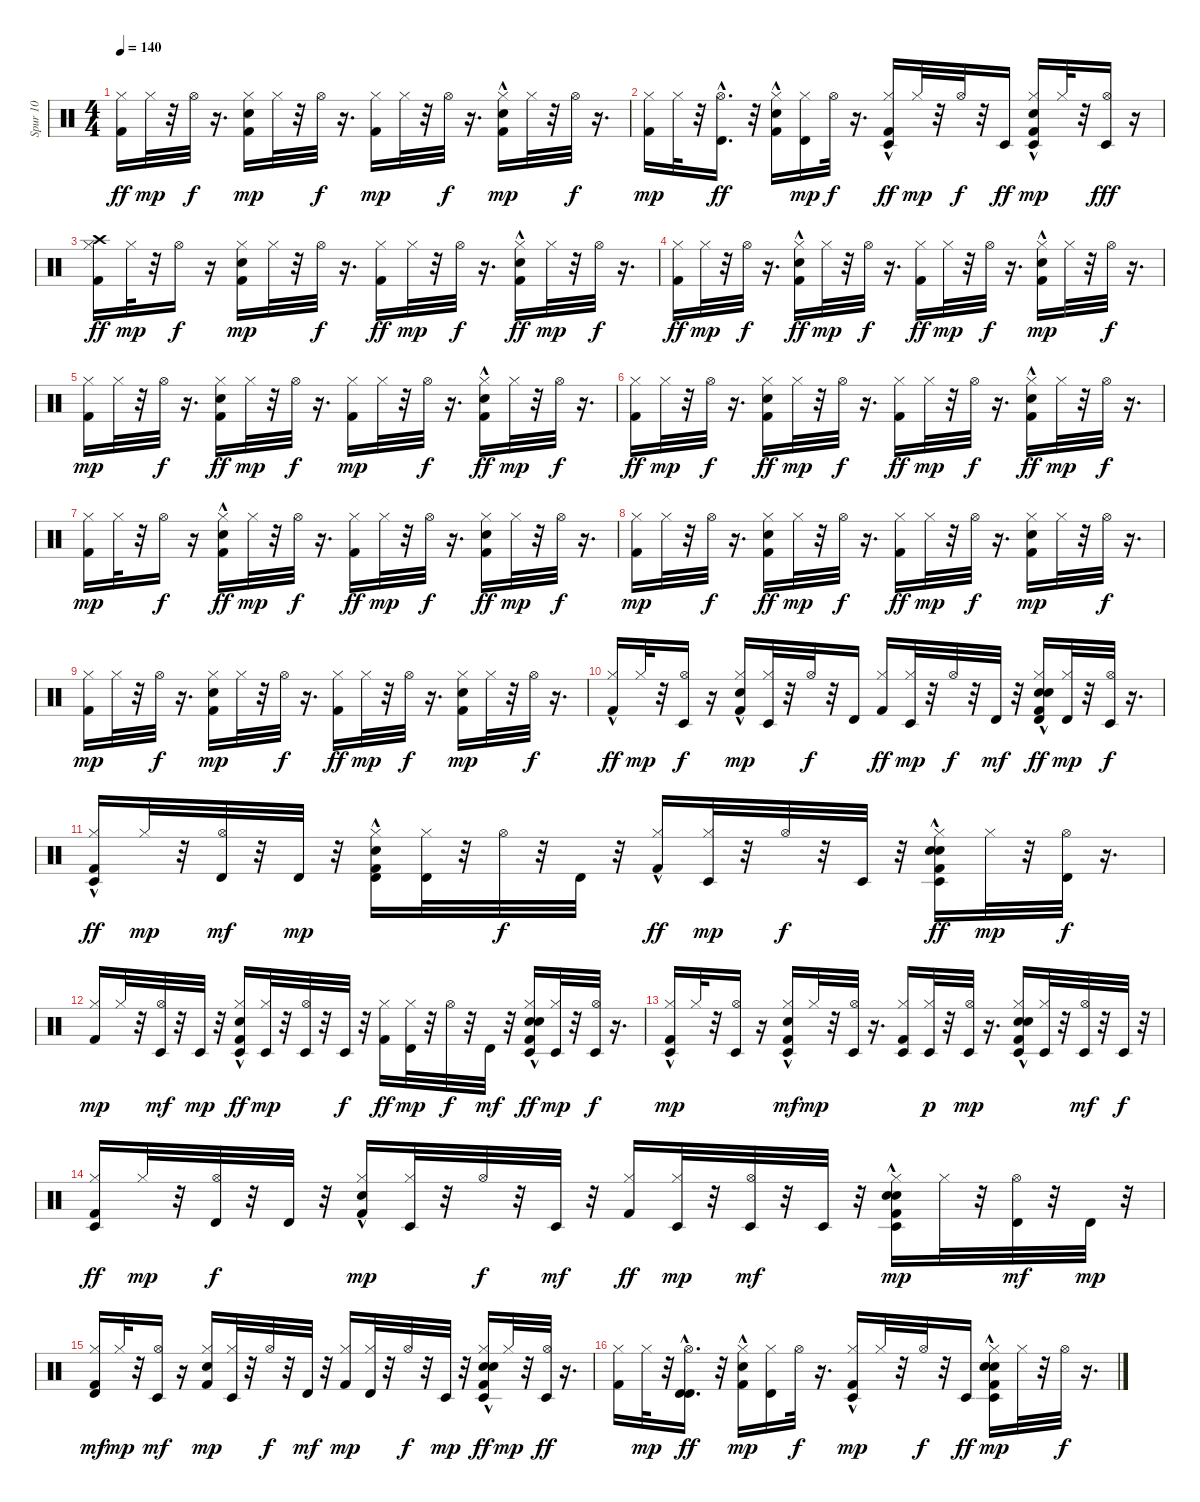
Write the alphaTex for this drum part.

\track ("Spur 10" "Spur 10") {instrument percussion}
\staff {score}
\articulation defaults
\ts (4 4)
\tempo 140
\clef neutral
\ks c
("Hi-Hat (closed)" "Kick (hit) 2").16{dy ff} "Hi-Hat (closed)".32{dy mp} r.32 "Hi-Hat (open)".32{dy f} r.16{d} ("Kick (hit) 2" "Electric Snare (hit)" "Hi-Hat (closed)").16{dy mp} "Hi-Hat (closed)".32 r.32 "Hi-Hat (open)".32{dy f} r.16{d} ("Kick (hit) 2" "Hi-Hat (closed)").16{dy mp} "Hi-Hat (closed)".32 r.32 "Hi-Hat (open)".32{dy f} r.16{d} ("Electric Snare (hit)"{hac} "Kick (hit) 2" "Hi-Hat (closed)").16{dy mp} "Hi-Hat (closed)".32 r.32 "Hi-Hat (open)".32{dy f} r.16{d} |
("Kick (hit) 2" "Hi-Hat (closed)").16{dy mp} "Hi-Hat (closed)".32 r.32 ("Timbale high (hit)"{hac} "Hi-Hat (open)").16{d dy ff} r.32 ("Hi-Hat (closed)" "Kick (hit) 2" "Electric Snare (hit)"{hac}).16 ("Hi-Hat (closed)" "Timbale high (hit)").16{dy mp} "Hi-Hat (open)".32{dy f} r.16{d} ("Timbale low (hit)"{hac} "Hi-Hat (closed)" "Kick (hit) 2").16{dy ff} "Hi-Hat (closed)".32{dy mp} r.32 "Hi-Hat (open)".32{dy f} r.32 "Timbale low (hit)".16{dy ff} ("Kick (hit) 2" "Electric Snare (hit)"{hac} "Timbale low (hit)" "Hi-Hat (closed)").16{dy mp} "Hi-Hat (closed)".32 r.32 ("Hi-Hat (open)" "Timbale low (hit)").16{dy fff} r.16 |
("Hi-Hat (closed)" "Crash high (hit)" "Kick (hit) 2").16{dy ff} "Hi-Hat (closed)".32{dy mp} r.32 "Hi-Hat (open)".16{dy f} r.16 ("Kick (hit) 2" "Electric Snare (hit)" "Hi-Hat (closed)").16{dy mp} "Hi-Hat (closed)".32 r.32 "Hi-Hat (open)".32{dy f} r.16{d} ("Hi-Hat (closed)" "Kick (hit) 2").16{dy ff} "Hi-Hat (closed)".32{dy mp} r.32 "Hi-Hat (open)".32{dy f} r.16{d} ("Electric Snare (hit)"{hac} "Hi-Hat (closed)" "Kick (hit) 2").16{dy ff} "Hi-Hat (closed)".32{dy mp} r.32 "Hi-Hat (open)".32{dy f} r.16{d} |
("Hi-Hat (closed)" "Kick (hit) 2").16{dy ff} "Hi-Hat (closed)".32{dy mp} r.32 "Hi-Hat (open)".32{dy f} r.16{d} ("Electric Snare (hit)"{hac} "Hi-Hat (closed)" "Kick (hit) 2").16{dy ff} "Hi-Hat (closed)".32{dy mp} r.32 "Hi-Hat (open)".32{dy f} r.16{d} ("Hi-Hat (closed)" "Kick (hit) 2").16{dy ff} "Hi-Hat (closed)".32{dy mp} r.32 "Hi-Hat (open)".32{dy f} r.16{d} ("Kick (hit) 2" "Hi-Hat (closed)" "Electric Snare (hit)"{hac}).16{dy mp} "Hi-Hat (closed)".32 r.32 "Hi-Hat (open)".32{dy f} r.16{d} |
("Kick (hit) 2" "Hi-Hat (closed)").16{dy mp} "Hi-Hat (closed)".32 r.32 "Hi-Hat (open)".32{dy f} r.16{d} ("Hi-Hat (closed)" "Electric Snare (hit)" "Kick (hit) 2").16{dy ff} "Hi-Hat (closed)".32{dy mp} r.32 "Hi-Hat (open)".32{dy f} r.16{d} ("Kick (hit) 2" "Hi-Hat (closed)").16{dy mp} "Hi-Hat (closed)".32 r.32 "Hi-Hat (open)".32{dy f} r.16{d} ("Hi-Hat (closed)" "Kick (hit) 2" "Electric Snare (hit)"{hac}).16{dy ff} "Hi-Hat (closed)".32{dy mp} r.32 "Hi-Hat (open)".32{dy f} r.16{d} |
("Hi-Hat (closed)" "Kick (hit) 2").16{dy ff} "Hi-Hat (closed)".32{dy mp} r.32 "Hi-Hat (open)".32{dy f} r.16{d} ("Electric Snare (hit)" "Hi-Hat (closed)" "Kick (hit) 2").16{dy ff} "Hi-Hat (closed)".32{dy mp} r.32 "Hi-Hat (open)".32{dy f} r.16{d} ("Hi-Hat (closed)" "Kick (hit) 2").16{dy ff} "Hi-Hat (closed)".32{dy mp} r.32 "Hi-Hat (open)".32{dy f} r.16{d} ("Hi-Hat (closed)" "Kick (hit) 2" "Electric Snare (hit)"{hac}).16{dy ff} "Hi-Hat (closed)".32{dy mp} r.32 "Hi-Hat (open)".32{dy f} r.16{d} |
("Kick (hit) 2" "Hi-Hat (closed)").16{dy mp} "Hi-Hat (closed)".32 r.32 "Hi-Hat (open)".16{dy f} r.16 ("Electric Snare (hit)"{hac} "Hi-Hat (closed)" "Kick (hit) 2").16{dy ff} "Hi-Hat (closed)".32{dy mp} r.32 "Hi-Hat (open)".32{dy f} r.16{d} ("Hi-Hat (closed)" "Kick (hit) 2").16{dy ff} "Hi-Hat (closed)".32{dy mp} r.32 "Hi-Hat (open)".32{dy f} r.16{d} ("Electric Snare (hit)" "Hi-Hat (closed)" "Kick (hit) 2").16{dy ff} "Hi-Hat (closed)".32{dy mp} r.32 "Hi-Hat (open)".32{dy f} r.16{d} |
("Kick (hit) 2" "Hi-Hat (closed)").16{dy mp} "Hi-Hat (closed)".32 r.32 "Hi-Hat (open)".32{dy f} r.16{d} ("Hi-Hat (closed)" "Electric Snare (hit)" "Kick (hit) 2").16{dy ff} "Hi-Hat (closed)".32{dy mp} r.32 "Hi-Hat (open)".32{dy f} r.16{d} ("Hi-Hat (closed)" "Kick (hit) 2").16{dy ff} "Hi-Hat (closed)".32{dy mp} r.32 "Hi-Hat (open)".32{dy f} r.16{d} ("Electric Snare (hit)" "Kick (hit) 2" "Hi-Hat (closed)").16{dy mp} "Hi-Hat (closed)".32 r.32 "Hi-Hat (open)".32{dy f} r.16{d} |
("Kick (hit) 2" "Hi-Hat (closed)").16{dy mp} "Hi-Hat (closed)".32 r.32 "Hi-Hat (open)".32{dy f} r.16{d} ("Electric Snare (hit)" "Kick (hit) 2" "Hi-Hat (closed)").16{dy mp} "Hi-Hat (closed)".32 r.32 "Hi-Hat (open)".32{dy f} r.16{d} ("Hi-Hat (closed)" "Kick (hit) 2").16{dy ff} "Hi-Hat (closed)".32{dy mp} r.32 "Hi-Hat (open)".32{dy f} r.16{d} ("Electric Snare (hit)" "Kick (hit) 2" "Hi-Hat (closed)").16{dy mp} "Hi-Hat (closed)".32 r.32 "Hi-Hat (open)".32{dy f} r.16{d} |
("Hi-Hat (closed)" "Kick (hit) 2"{hac}).16{dy ff} "Hi-Hat (closed)".32{dy mp} r.32 ("Timbale low (hit)" "Hi-Hat (open)").16{dy f} r.16 ("Electric Snare (hit)"{hac} "Kick (hit) 2"{hac} "Hi-Hat (closed)").16{dy mp} ("Timbale low (hit)" "Hi-Hat (closed)").32 r.32 "Hi-Hat (open)".32{dy f} r.32 "Timbale high (hit)".16 ("Hi-Hat (closed)" "Kick (hit) 2").16{dy ff} ("Timbale low (hit)" "Hi-Hat (closed)").32{dy mp} r.32 "Hi-Hat (open)".32{dy f} r.32 "Timbale high (hit)".32{dy mf} r.32 ("Electric Snare (hit)"{hac} "Hi-Hat (closed)" "Snare (hit) 2" "Kick (hit) 2"{hac} "Timbale high (hit)").16{dy ff} ("Timbale high (hit)" "Hi-Hat (closed)").32{dy mp} r.32 ("Hi-Hat (open)" "Timbale low (hit)").32{dy f} r.16{d} |
("Kick (hit) 2"{hac} "Hi-Hat (closed)" "Timbale low (hit)").16{dy ff} "Hi-Hat (closed)".32{dy mp} r.32 ("Timbale high (hit)" "Hi-Hat (open)").32{dy mf} r.32 "Timbale high (hit)".32{dy mp} r.32 ("Electric Snare (hit)" "Timbale high (hit)" "Kick (hit) 2"{hac} "Hi-Hat (closed)").16 ("Hi-Hat (closed)" "Timbale high (hit)").32 r.32 "Hi-Hat (open)".32{dy f} r.32 "Timbale high (hit)".32 r.32 ("Hi-Hat (closed)" "Kick (hit) 2"{hac}).16{dy ff} ("Timbale low (hit)" "Hi-Hat (closed)").32{dy mp} r.32 "Hi-Hat (open)".32{dy f} r.32 "Timbale low (hit)".32 r.32 ("Timbale low (hit)" "Hi-Hat (closed)" "Snare (hit) 2" "Kick (hit) 2" "Electric Snare (hit)"{hac}).16{dy ff} "Hi-Hat (closed)".32{dy mp} r.32 ("Hi-Hat (open)" "Timbale high (hit)").32{dy f} r.16{d} |
("Kick (hit) 2" "Hi-Hat (closed)").16{dy mp} "Hi-Hat (closed)".32 r.32 ("Timbale low (hit)" "Hi-Hat (open)").32{dy mf} r.32 "Timbale low (hit)".32{dy mp} r.32 ("Electric Snare (hit)"{hac} "Hi-Hat (closed)" "Timbale low (hit)" "Kick (hit) 2").16{dy ff} ("Timbale low (hit)" "Hi-Hat (closed)").32{dy mp} r.32 ("Timbale low (hit)" "Hi-Hat (open)").32 r.32 "Timbale low (hit)".32{dy f} r.32 ("Hi-Hat (closed)" "Kick (hit) 2").16{dy ff} ("Timbale high (hit)" "Hi-Hat (closed)").32{dy mp} r.32 "Hi-Hat (open)".32{dy f} r.32 "Timbale high (hit)".32{dy mf} r.32 ("Hi-Hat (closed)" "Timbale low (hit)" "Snare (hit) 2" "Electric Snare (hit)"{hac} "Kick (hit) 2"{hac}).16{dy ff} ("Timbale low (hit)" "Hi-Hat (closed)").32{dy mp} r.32 ("Hi-Hat (open)" "Timbale low (hit)").32{dy f} r.16{d} |
("Timbale low (hit)" "Kick (hit) 2"{hac} "Hi-Hat (closed)").16{dy mp} "Hi-Hat (closed)".32 r.32 ("Hi-Hat (open)" "Timbale low (hit)").16 r.16 ("Electric Snare (hit)"{hac} "Kick (hit) 2"{hac} "Hi-Hat (closed)" "Timbale low (hit)").16{dy mf} "Hi-Hat (closed)".32{dy mp} r.32 ("Hi-Hat (open)" "Timbale low (hit)").32 r.16{d} ("Kick (hit) 2" "Timbale low (hit)" "Hi-Hat (closed)").16 ("Hi-Hat (closed)" "Timbale low (hit)").32{dy p} r.32 ("Timbale low (hit)" "Hi-Hat (open)").32{dy mp} r.16{d} ("Timbale low (hit)" "Kick (hit) 2"{hac} "Hi-Hat (closed)" "Electric Snare (hit)"{hac} "Snare (hit) 2").16 ("Timbale low (hit)" "Hi-Hat (closed)").32 r.32 ("Timbale low (hit)" "Hi-Hat (open)").32{dy mf} r.32 "Timbale low (hit)".32{dy f} r.32 |
("Timbale low (hit)" "Hi-Hat (closed)" "Kick (hit) 2").16{dy ff} "Hi-Hat (closed)".32{dy mp} r.32 ("Hi-Hat (open)" "Timbale high (hit)").32{dy f} r.32 "Timbale high (hit)".32 r.32 ("Kick (hit) 2" "Electric Snare (hit)"{hac} "Hi-Hat (closed)").16{dy mp} ("Timbale low (hit)" "Hi-Hat (closed)").32 r.32 "Hi-Hat (open)".32{dy f} r.32 "Timbale low (hit)".32{dy mf} r.32 ("Hi-Hat (closed)" "Kick (hit) 2").16{dy ff} ("Hi-Hat (closed)" "Timbale low (hit)").32{dy mp} r.32 ("Timbale low (hit)" "Hi-Hat (open)").32{dy mf} r.32 "Timbale low (hit)".32 r.32 ("Timbale low (hit)" "Kick (hit) 2" "Snare (hit) 2" "Electric Snare (hit)"{hac} "Hi-Hat (closed)").16{dy mp} "Hi-Hat (closed)".32 r.32 ("Timbale high (hit)" "Hi-Hat (open)").32{dy mf} r.32 "Timbale high (hit)".32{dy mp} r.32 |
("Hi-Hat (closed)" "Kick (hit) 2" "Timbale high (hit)").16{dy mf} "Hi-Hat (closed)".32{dy mp} r.32 ("Timbale low (hit)" "Hi-Hat (open)").16{dy mf} r.16 ("Electric Snare (hit)" "Kick (hit) 2" "Hi-Hat (closed)").16{dy mp} ("Timbale low (hit)" "Hi-Hat (closed)").32 r.32 "Hi-Hat (open)".32{dy f} r.32 "Timbale high (hit)".32{dy mf} r.32 ("Kick (hit) 2" "Hi-Hat (closed)").16{dy mp} ("Timbale high (hit)" "Hi-Hat (closed)").32 r.32 "Hi-Hat (open)".32{dy f} r.32 "Timbale low (hit)".32{dy mp} r.32 ("Snare (hit) 2" "Electric Snare (hit)"{hac} "Timbale low (hit)" "Hi-Hat (closed)" "Kick (hit) 2").16{dy ff} "Hi-Hat (closed)".32{dy mp} r.32 ("Timbale low (hit)" "Hi-Hat (open)").32{dy ff} r.16{d} |
("Hi-Hat (closed)" "Kick (hit) 2").16 "Hi-Hat (closed)".32{dy mp} r.32 ("Hi-Hat (open)" "Timbale high (hit)"{hac} "Timbale high (hit)"{hac}).16{d dy ff} r.32 ("Electric Snare (hit)"{hac} "Kick (hit) 2" "Hi-Hat (closed)").16{dy mp} ("Timbale high (hit)" "Hi-Hat (closed)").16 "Hi-Hat (open)".32{dy f} r.16{d} ("Timbale low (hit)"{hac} "Kick (hit) 2" "Hi-Hat (closed)").16{dy mp} "Hi-Hat (closed)".32 r.32 "Hi-Hat (open)".32{dy f} r.32 "Timbale low (hit)".16{dy ff} ("Kick (hit) 2" "Snare (hit) 2" "Timbale low (hit)" "Hi-Hat (closed)" "Electric Snare (hit)"{hac}).16{dy mp} "Hi-Hat (closed)".32 r.32 "Hi-Hat (open)".32{dy f} r.16{d}
